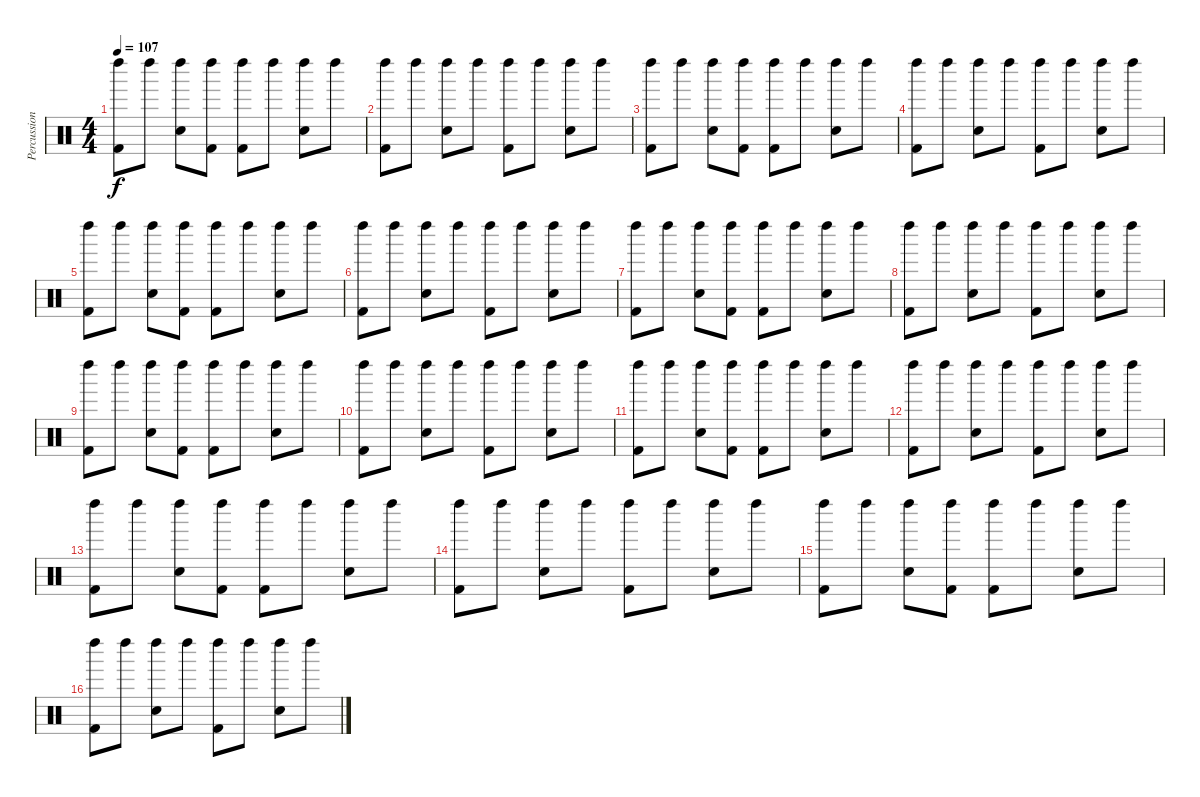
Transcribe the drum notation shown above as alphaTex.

\track ("Percussion" "Percussion") {instrument percussion}
\staff {score}
\articulation defaults
\ts (4 4)
\tempo 107
\clef neutral
\ks c
("Kick (hit) 2" "Left Maraca (hit)").8{dy f} "Left Maraca (hit)".8 ("Snare (hit) 2" "Left Maraca (hit)").8 ("Kick (hit) 2" "Left Maraca (hit)").8 ("Kick (hit) 2" "Left Maraca (hit)").8 "Left Maraca (hit)".8 ("Snare (hit) 2" "Left Maraca (hit)").8 "Left Maraca (hit)".8 |
("Kick (hit) 2" "Left Maraca (hit)").8 "Left Maraca (hit)".8 ("Snare (hit) 2" "Left Maraca (hit)").8 "Left Maraca (hit)".8 ("Kick (hit) 2" "Left Maraca (hit)").8 "Left Maraca (hit)".8 ("Snare (hit) 2" "Left Maraca (hit)").8 "Left Maraca (hit)".8 |
("Kick (hit) 2" "Left Maraca (hit)").8 "Left Maraca (hit)".8 ("Snare (hit) 2" "Left Maraca (hit)").8 ("Kick (hit) 2" "Left Maraca (hit)").8 ("Kick (hit) 2" "Left Maraca (hit)").8 "Left Maraca (hit)".8 ("Snare (hit) 2" "Left Maraca (hit)").8 "Left Maraca (hit)".8 |
("Kick (hit) 2" "Left Maraca (hit)").8 "Left Maraca (hit)".8 ("Snare (hit) 2" "Left Maraca (hit)").8 "Left Maraca (hit)".8 ("Kick (hit) 2" "Left Maraca (hit)").8 "Left Maraca (hit)".8 ("Snare (hit) 2" "Left Maraca (hit)").8 "Left Maraca (hit)".8 |
("Kick (hit) 2" "Left Maraca (hit)").8 "Left Maraca (hit)".8 ("Snare (hit) 2" "Left Maraca (hit)").8 ("Kick (hit) 2" "Left Maraca (hit)").8 ("Kick (hit) 2" "Left Maraca (hit)").8 "Left Maraca (hit)".8 ("Snare (hit) 2" "Left Maraca (hit)").8 "Left Maraca (hit)".8 |
("Kick (hit) 2" "Left Maraca (hit)").8 "Left Maraca (hit)".8 ("Snare (hit) 2" "Left Maraca (hit)").8 "Left Maraca (hit)".8 ("Kick (hit) 2" "Left Maraca (hit)").8 "Left Maraca (hit)".8 ("Snare (hit) 2" "Left Maraca (hit)").8 "Left Maraca (hit)".8 |
("Kick (hit) 2" "Left Maraca (hit)").8 "Left Maraca (hit)".8 ("Snare (hit) 2" "Left Maraca (hit)").8 ("Kick (hit) 2" "Left Maraca (hit)").8 ("Kick (hit) 2" "Left Maraca (hit)").8 "Left Maraca (hit)".8 ("Snare (hit) 2" "Left Maraca (hit)").8 "Left Maraca (hit)".8 |
("Kick (hit) 2" "Left Maraca (hit)").8 "Left Maraca (hit)".8 ("Snare (hit) 2" "Left Maraca (hit)").8 "Left Maraca (hit)".8 ("Kick (hit) 2" "Left Maraca (hit)").8 "Left Maraca (hit)".8 ("Snare (hit) 2" "Left Maraca (hit)").8 "Left Maraca (hit)".8 |
("Kick (hit) 2" "Left Maraca (hit)").8 "Left Maraca (hit)".8 ("Snare (hit) 2" "Left Maraca (hit)").8 ("Kick (hit) 2" "Left Maraca (hit)").8 ("Kick (hit) 2" "Left Maraca (hit)").8 "Left Maraca (hit)".8 ("Snare (hit) 2" "Left Maraca (hit)").8 "Left Maraca (hit)".8 |
("Kick (hit) 2" "Left Maraca (hit)").8 "Left Maraca (hit)".8 ("Snare (hit) 2" "Left Maraca (hit)").8 "Left Maraca (hit)".8 ("Kick (hit) 2" "Left Maraca (hit)").8 "Left Maraca (hit)".8 ("Snare (hit) 2" "Left Maraca (hit)").8 "Left Maraca (hit)".8 |
("Kick (hit) 2" "Left Maraca (hit)").8 "Left Maraca (hit)".8 ("Snare (hit) 2" "Left Maraca (hit)").8 ("Kick (hit) 2" "Left Maraca (hit)").8 ("Kick (hit) 2" "Left Maraca (hit)").8 "Left Maraca (hit)".8 ("Snare (hit) 2" "Left Maraca (hit)").8 "Left Maraca (hit)".8 |
("Kick (hit) 2" "Left Maraca (hit)").8 "Left Maraca (hit)".8 ("Snare (hit) 2" "Left Maraca (hit)").8 "Left Maraca (hit)".8 ("Kick (hit) 2" "Left Maraca (hit)").8 "Left Maraca (hit)".8 ("Snare (hit) 2" "Left Maraca (hit)").8 "Left Maraca (hit)".8 |
("Kick (hit) 2" "Left Maraca (hit)").8 "Left Maraca (hit)".8 ("Snare (hit) 2" "Left Maraca (hit)").8 ("Kick (hit) 2" "Left Maraca (hit)").8 ("Kick (hit) 2" "Left Maraca (hit)").8 "Left Maraca (hit)".8 ("Snare (hit) 2" "Left Maraca (hit)").8 "Left Maraca (hit)".8 |
("Kick (hit) 2" "Left Maraca (hit)").8 "Left Maraca (hit)".8 ("Snare (hit) 2" "Left Maraca (hit)").8 "Left Maraca (hit)".8 ("Kick (hit) 2" "Left Maraca (hit)").8 "Left Maraca (hit)".8 ("Snare (hit) 2" "Left Maraca (hit)").8 "Left Maraca (hit)".8 |
("Kick (hit) 2" "Left Maraca (hit)").8 "Left Maraca (hit)".8 ("Snare (hit) 2" "Left Maraca (hit)").8 ("Kick (hit) 2" "Left Maraca (hit)").8 ("Kick (hit) 2" "Left Maraca (hit)").8 "Left Maraca (hit)".8 ("Snare (hit) 2" "Left Maraca (hit)").8 "Left Maraca (hit)".8 |
("Kick (hit) 2" "Left Maraca (hit)").8 "Left Maraca (hit)".8 ("Snare (hit) 2" "Left Maraca (hit)").8 "Left Maraca (hit)".8 ("Kick (hit) 2" "Left Maraca (hit)").8 "Left Maraca (hit)".8 ("Snare (hit) 2" "Left Maraca (hit)").8 "Left Maraca (hit)".8
